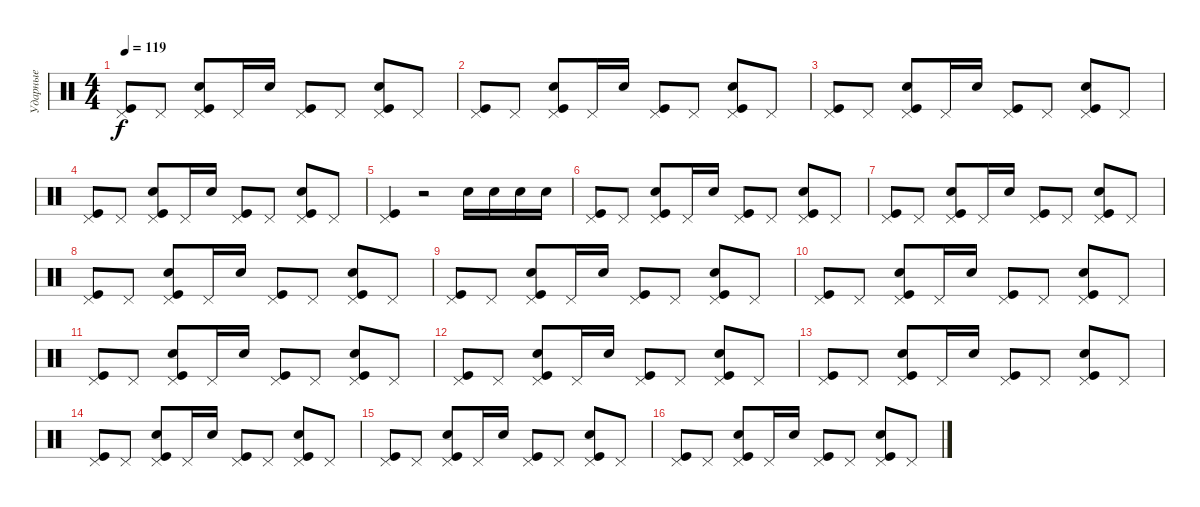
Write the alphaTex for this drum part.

\track ("Ударные" "Ударные") {instrument percussion}
\staff {score}
\articulation defaults
\ts (4 4)
\tempo 119
\clef neutral
\ks c
("Kick (hit)" "Pedal Hi-Hat (hit)").8{dy f} "Pedal Hi-Hat (hit)".8 ("Kick (hit)" "Snare (hit) 2" "Pedal Hi-Hat (hit)").8 "Pedal Hi-Hat (hit)".16 "Snare (hit) 2".16 ("Kick (hit)" "Pedal Hi-Hat (hit)").8 "Pedal Hi-Hat (hit)".8 ("Kick (hit)" "Snare (hit) 2" "Pedal Hi-Hat (hit)").8 "Pedal Hi-Hat (hit)".8 |
("Kick (hit)" "Pedal Hi-Hat (hit)").8 "Pedal Hi-Hat (hit)".8 ("Kick (hit)" "Snare (hit) 2" "Pedal Hi-Hat (hit)").8 "Pedal Hi-Hat (hit)".16 "Snare (hit) 2".16 ("Kick (hit)" "Pedal Hi-Hat (hit)").8 "Pedal Hi-Hat (hit)".8 ("Kick (hit)" "Snare (hit) 2" "Pedal Hi-Hat (hit)").8 "Pedal Hi-Hat (hit)".8 |
("Kick (hit)" "Pedal Hi-Hat (hit)").8 "Pedal Hi-Hat (hit)".8 ("Kick (hit)" "Snare (hit) 2" "Pedal Hi-Hat (hit)").8 "Pedal Hi-Hat (hit)".16 "Snare (hit) 2".16 ("Kick (hit)" "Pedal Hi-Hat (hit)").8 "Pedal Hi-Hat (hit)".8 ("Kick (hit)" "Snare (hit) 2" "Pedal Hi-Hat (hit)").8 "Pedal Hi-Hat (hit)".8 |
("Kick (hit)" "Pedal Hi-Hat (hit)").8 "Pedal Hi-Hat (hit)".8 ("Kick (hit)" "Snare (hit) 2" "Pedal Hi-Hat (hit)").8 "Pedal Hi-Hat (hit)".16 "Snare (hit) 2".16 ("Kick (hit)" "Pedal Hi-Hat (hit)").8 "Pedal Hi-Hat (hit)".8 ("Kick (hit)" "Snare (hit) 2" "Pedal Hi-Hat (hit)").8 "Pedal Hi-Hat (hit)".8 |
("Kick (hit)" "Pedal Hi-Hat (hit)").4 r.2 "Electric Snare (hit)".16 "Electric Snare (hit)".16 "Electric Snare (hit)".16 "Electric Snare (hit)".16 |
("Kick (hit)" "Pedal Hi-Hat (hit)").8 "Pedal Hi-Hat (hit)".8 ("Kick (hit)" "Electric Snare (hit)" "Pedal Hi-Hat (hit)").8 "Pedal Hi-Hat (hit)".16 "Electric Snare (hit)".16 ("Kick (hit)" "Pedal Hi-Hat (hit)").8 "Pedal Hi-Hat (hit)".8 ("Kick (hit)" "Electric Snare (hit)" "Pedal Hi-Hat (hit)").8 "Pedal Hi-Hat (hit)".8 |
("Kick (hit)" "Pedal Hi-Hat (hit)").8 "Pedal Hi-Hat (hit)".8 ("Kick (hit)" "Electric Snare (hit)" "Pedal Hi-Hat (hit)").8 "Pedal Hi-Hat (hit)".16 "Electric Snare (hit)".16 ("Kick (hit)" "Pedal Hi-Hat (hit)").8 "Pedal Hi-Hat (hit)".8 ("Kick (hit)" "Electric Snare (hit)" "Pedal Hi-Hat (hit)").8 "Pedal Hi-Hat (hit)".8 |
("Kick (hit)" "Pedal Hi-Hat (hit)").8 "Pedal Hi-Hat (hit)".8 ("Kick (hit)" "Electric Snare (hit)" "Pedal Hi-Hat (hit)").8 "Pedal Hi-Hat (hit)".16 "Electric Snare (hit)".16 ("Kick (hit)" "Pedal Hi-Hat (hit)").8 "Pedal Hi-Hat (hit)".8 ("Kick (hit)" "Electric Snare (hit)" "Pedal Hi-Hat (hit)").8 "Pedal Hi-Hat (hit)".8 |
("Kick (hit)" "Pedal Hi-Hat (hit)").8 "Pedal Hi-Hat (hit)".8 ("Kick (hit)" "Electric Snare (hit)" "Pedal Hi-Hat (hit)").8 "Pedal Hi-Hat (hit)".16 "Electric Snare (hit)".16 ("Kick (hit)" "Pedal Hi-Hat (hit)").8 "Pedal Hi-Hat (hit)".8 ("Kick (hit)" "Electric Snare (hit)" "Pedal Hi-Hat (hit)").8 "Pedal Hi-Hat (hit)".8 |
("Kick (hit)" "Pedal Hi-Hat (hit)").8 "Pedal Hi-Hat (hit)".8 ("Kick (hit)" "Electric Snare (hit)" "Pedal Hi-Hat (hit)").8 "Pedal Hi-Hat (hit)".16 "Electric Snare (hit)".16 ("Kick (hit)" "Pedal Hi-Hat (hit)").8 "Pedal Hi-Hat (hit)".8 ("Kick (hit)" "Electric Snare (hit)" "Pedal Hi-Hat (hit)").8 "Pedal Hi-Hat (hit)".8 |
("Kick (hit)" "Pedal Hi-Hat (hit)").8 "Pedal Hi-Hat (hit)".8 ("Kick (hit)" "Electric Snare (hit)" "Pedal Hi-Hat (hit)").8 "Pedal Hi-Hat (hit)".16 "Electric Snare (hit)".16 ("Kick (hit)" "Pedal Hi-Hat (hit)").8 "Pedal Hi-Hat (hit)".8 ("Kick (hit)" "Electric Snare (hit)" "Pedal Hi-Hat (hit)").8 "Pedal Hi-Hat (hit)".8 |
("Kick (hit)" "Pedal Hi-Hat (hit)").8 "Pedal Hi-Hat (hit)".8 ("Kick (hit)" "Electric Snare (hit)" "Pedal Hi-Hat (hit)").8 "Pedal Hi-Hat (hit)".16 "Electric Snare (hit)".16 ("Kick (hit)" "Pedal Hi-Hat (hit)").8 "Pedal Hi-Hat (hit)".8 ("Kick (hit)" "Electric Snare (hit)" "Pedal Hi-Hat (hit)").8 "Pedal Hi-Hat (hit)".8 |
("Kick (hit)" "Pedal Hi-Hat (hit)").8 "Pedal Hi-Hat (hit)".8 ("Kick (hit)" "Electric Snare (hit)" "Pedal Hi-Hat (hit)").8 "Pedal Hi-Hat (hit)".16 "Electric Snare (hit)".16 ("Kick (hit)" "Pedal Hi-Hat (hit)").8 "Pedal Hi-Hat (hit)".8 ("Kick (hit)" "Electric Snare (hit)" "Pedal Hi-Hat (hit)").8 "Pedal Hi-Hat (hit)".8 |
("Kick (hit)" "Pedal Hi-Hat (hit)").8 "Pedal Hi-Hat (hit)".8 ("Kick (hit)" "Electric Snare (hit)" "Pedal Hi-Hat (hit)").8 "Pedal Hi-Hat (hit)".16 "Electric Snare (hit)".16 ("Kick (hit)" "Pedal Hi-Hat (hit)").8 "Pedal Hi-Hat (hit)".8 ("Kick (hit)" "Electric Snare (hit)" "Pedal Hi-Hat (hit)").8 "Pedal Hi-Hat (hit)".8 |
("Kick (hit)" "Pedal Hi-Hat (hit)").8 "Pedal Hi-Hat (hit)".8 ("Kick (hit)" "Electric Snare (hit)" "Pedal Hi-Hat (hit)").8 "Pedal Hi-Hat (hit)".16 "Electric Snare (hit)".16 ("Kick (hit)" "Pedal Hi-Hat (hit)").8 "Pedal Hi-Hat (hit)".8 ("Kick (hit)" "Electric Snare (hit)" "Pedal Hi-Hat (hit)").8 "Pedal Hi-Hat (hit)".8 |
("Kick (hit)" "Pedal Hi-Hat (hit)").8 "Pedal Hi-Hat (hit)".8 ("Kick (hit)" "Electric Snare (hit)" "Pedal Hi-Hat (hit)").8 "Pedal Hi-Hat (hit)".16 "Electric Snare (hit)".16 ("Kick (hit)" "Pedal Hi-Hat (hit)").8 "Pedal Hi-Hat (hit)".8 ("Kick (hit)" "Electric Snare (hit)" "Pedal Hi-Hat (hit)").8 "Pedal Hi-Hat (hit)".8
